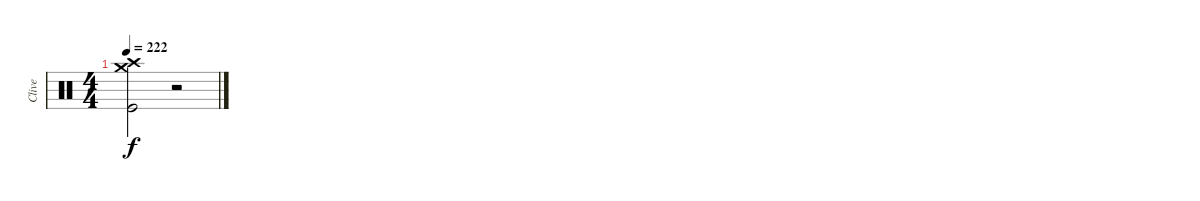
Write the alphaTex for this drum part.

\track ("Clive" "Clive") {instrument percussion}
\staff {score}
\articulation defaults
\ts (4 4)
\tempo 222
\clef neutral
\ks c
("Crash medium (hit)" "Crash high (hit)" "Kick (hit)").2{dy f} r.2
